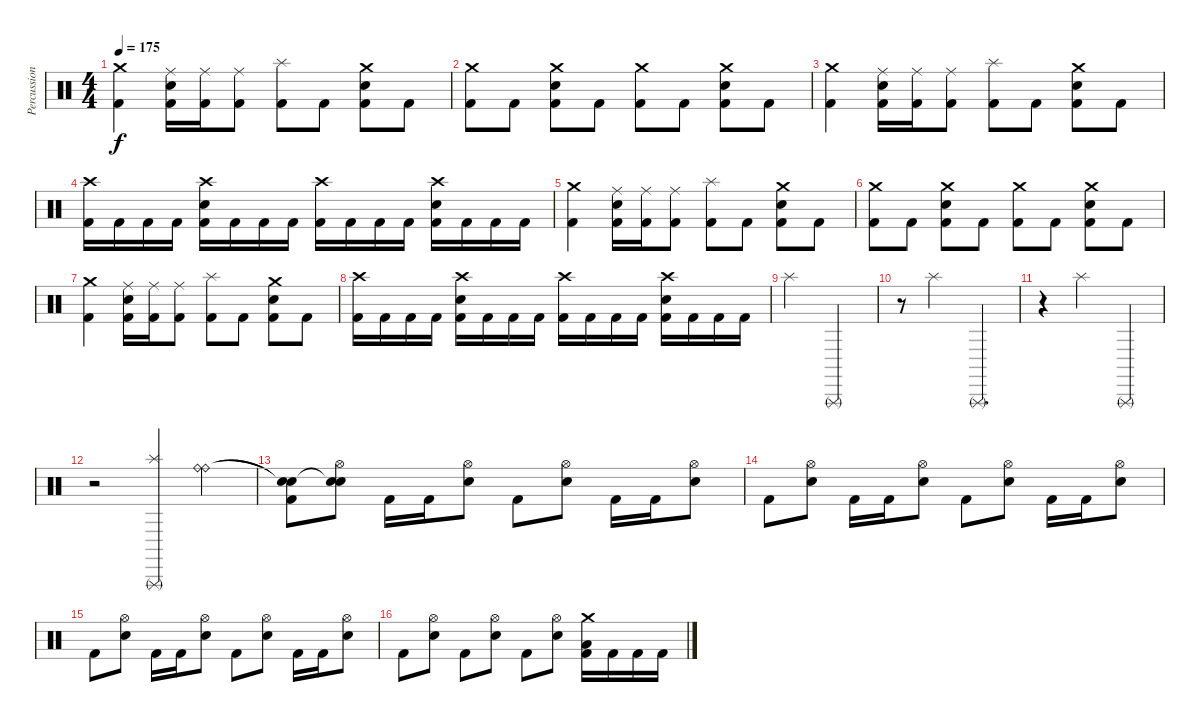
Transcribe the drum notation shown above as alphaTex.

\track ("Percussion" "Percussion") {instrument percussion}
\staff {score}
\articulation defaults
\ts (4 4)
\tempo 175
\clef neutral
\ks c
("Crash medium (hit)" "Kick (hit) 2").4{dy f} ("Ride (middle)" "Electric Snare (hit)" "Kick (hit) 2").16 ("Ride (middle)" "Kick (hit) 2").16 ("Ride (middle)" "Kick (hit) 2").8 ("Splash (hit)" "Kick (hit) 2").8 "Kick (hit) 2".8 ("Crash medium (hit)" "Electric Snare (hit)" "Kick (hit) 2").8 "Kick (hit) 2".8 |
("Crash medium (hit)" "Kick (hit) 2").8 "Kick (hit) 2".8 ("Crash medium (hit)" "Electric Snare (hit)" "Kick (hit) 2").8 "Kick (hit) 2".8 ("Crash medium (hit)" "Kick (hit) 2").8 "Kick (hit) 2".8 ("Crash medium (hit)" "Electric Snare (hit)" "Kick (hit) 2").8 "Kick (hit) 2".8 |
("Crash medium (hit)" "Kick (hit) 2").4 ("Ride (middle)" "Electric Snare (hit)" "Kick (hit) 2").16 ("Ride (middle)" "Kick (hit) 2").16 ("Ride (middle)" "Kick (hit) 2").8 ("Splash (hit)" "Kick (hit) 2").8 "Kick (hit) 2".8 ("Crash medium (hit)" "Electric Snare (hit)" "Kick (hit) 2").8 "Kick (hit) 2".8 |
("Crash high (hit)" "Kick (hit) 2").16 "Kick (hit) 2".16 "Kick (hit) 2".16 "Kick (hit) 2".16 ("Crash high (hit)" "Electric Snare (hit)" "Kick (hit) 2").16 "Kick (hit) 2".16 "Kick (hit) 2".16 "Kick (hit) 2".16 ("Crash high (hit)" "Kick (hit) 2").16 "Kick (hit) 2".16 "Kick (hit) 2".16 "Kick (hit) 2".16 ("Crash high (hit)" "Electric Snare (hit)" "Kick (hit) 2").16 "Kick (hit) 2".16 "Kick (hit) 2".16 "Kick (hit) 2".16 |
("Crash medium (hit)" "Kick (hit) 2").4 ("Ride (middle)" "Electric Snare (hit)" "Kick (hit) 2").16 ("Ride (middle)" "Kick (hit) 2").16 ("Ride (middle)" "Kick (hit) 2").8 ("Splash (hit)" "Kick (hit) 2").8 "Kick (hit) 2".8 ("Crash medium (hit)" "Electric Snare (hit)" "Kick (hit) 2").8 "Kick (hit) 2".8 |
("Crash medium (hit)" "Kick (hit) 2").8 "Kick (hit) 2".8 ("Crash medium (hit)" "Electric Snare (hit)" "Kick (hit) 2").8 "Kick (hit) 2".8 ("Crash medium (hit)" "Kick (hit) 2").8 "Kick (hit) 2".8 ("Crash medium (hit)" "Electric Snare (hit)" "Kick (hit) 2").8 "Kick (hit) 2".8 |
("Crash medium (hit)" "Kick (hit) 2").4 ("Ride (middle)" "Electric Snare (hit)" "Kick (hit) 2").16 ("Ride (middle)" "Kick (hit) 2").16 ("Ride (middle)" "Kick (hit) 2").8 ("Splash (hit)" "Kick (hit) 2").8 "Kick (hit) 2".8 ("Crash medium (hit)" "Electric Snare (hit)" "Kick (hit) 2").8 "Kick (hit) 2".8 |
("Crash high (hit)" "Kick (hit) 2").16 "Kick (hit) 2".16 "Kick (hit) 2".16 "Kick (hit) 2".16 ("Crash high (hit)" "Electric Snare (hit)" "Kick (hit) 2").16 "Kick (hit) 2".16 "Kick (hit) 2".16 "Kick (hit) 2".16 ("Crash high (hit)" "Kick (hit) 2").16 "Kick (hit) 2".16 "Kick (hit) 2".16 "Kick (hit) 2".16 ("Crash high (hit)" "Electric Snare (hit)" "Kick (hit) 2").16 "Kick (hit) 2".16 "Kick (hit) 2".16 "Kick (hit) 2".16 |
"Splash (hit)".2{volume 16} "Triangle (rnute)".2 |
r.8 "Splash (hit)".2 "Triangle (rnute)".4{d} |
r.4 "Splash (hit)".2 "Triangle (rnute)".4 |
r.2 ("Splash (hit)" "Triangle (rnute)").4 ("Ride (bell)" "Ride (bell)").4 |
("Snare (hit)"{t} "Snare (hit)"{t} "Kick (hit) 2").8{volume 15} ("Hi-Hat (open)" "Snare (hit)"{t} "Electric Snare (hit)").8 "Kick (hit) 2".16 "Kick (hit) 2".16 ("Hi-Hat (open)" "Electric Snare (hit)").8 "Kick (hit) 2".8 ("Hi-Hat (open)" "Electric Snare (hit)").8 "Kick (hit) 2".16 "Kick (hit) 2".16 ("Hi-Hat (open)" "Electric Snare (hit)").8 |
"Kick (hit) 2".8 ("Hi-Hat (open)" "Electric Snare (hit)").8 "Kick (hit) 2".16 "Kick (hit) 2".16 ("Hi-Hat (open)" "Electric Snare (hit)").8 "Kick (hit) 2".8 ("Hi-Hat (open)" "Electric Snare (hit)").8 "Kick (hit) 2".16 "Kick (hit) 2".16 ("Hi-Hat (open)" "Electric Snare (hit)").8 |
"Kick (hit) 2".8 ("Hi-Hat (open)" "Electric Snare (hit)").8 "Kick (hit) 2".16 "Kick (hit) 2".16 ("Hi-Hat (open)" "Electric Snare (hit)").8 "Kick (hit) 2".8 ("Hi-Hat (open)" "Electric Snare (hit)").8 "Kick (hit) 2".16 "Kick (hit) 2".16 ("Hi-Hat (open)" "Electric Snare (hit)").8 |
"Kick (hit) 2".8 ("Hi-Hat (open)" "Electric Snare (hit)").8 "Kick (hit) 2".8 ("Hi-Hat (open)" "Electric Snare (hit)").8 "Kick (hit) 2".8 ("Hi-Hat (open)" "Electric Snare (hit)").8 ("Crash medium (hit)" "Low Tom (hit)" "Kick (hit) 2").16 "Kick (hit) 2".16 "Kick (hit) 2".16 "Kick (hit) 2".16
